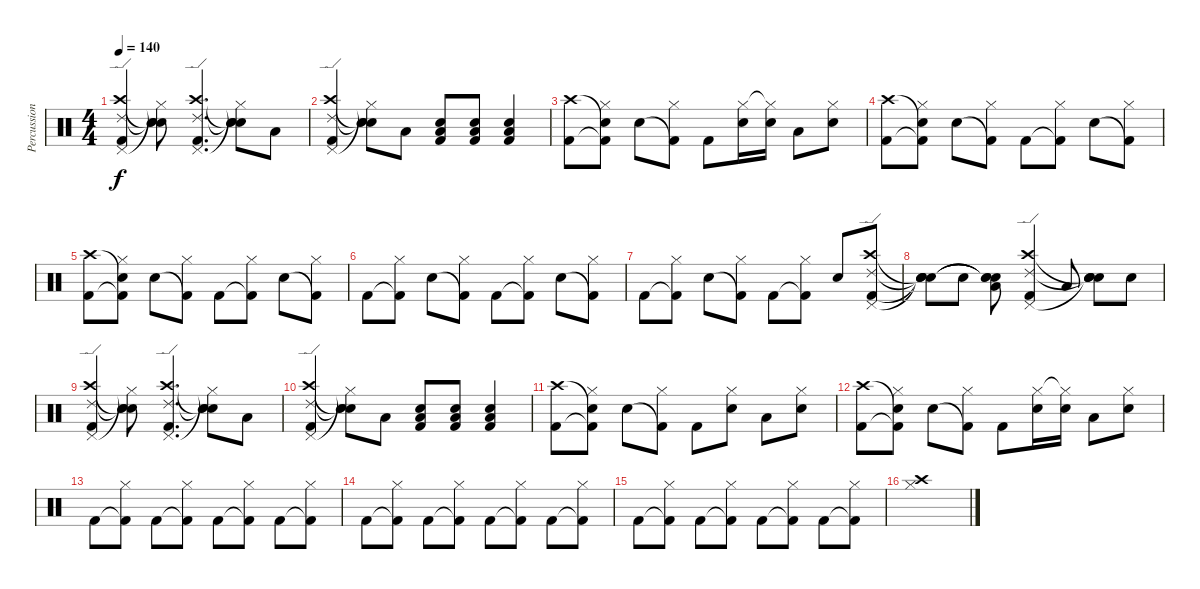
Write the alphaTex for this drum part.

\track ("Percussion" "Percussion") {instrument percussion}
\staff {score}
\articulation defaults
\ts (4 4)
\tempo 140
\clef neutral
\ks c
("Kick (hit) 2" "Crash high (hit)" "Ride (edge) 2" "Pedal Hi-Hat (hit)").4{dy f} ("Snare (hit) 2" "Snare (hit)"{t} "Snare (hit)"{t} "Hi-Hat (closed)"{t}).8 ("Kick (hit) 2" "Crash high (hit)" "Ride (edge) 2" "Pedal Hi-Hat (hit)").4{d} ("Snare (hit) 2" "Snare (hit)"{t} "Snare (hit)"{t} "Hi-Hat (closed)"{t}).8 "Low Tom (hit)".8 |
("Kick (hit) 2" "Crash high (hit)" "Ride (edge) 2" "Pedal Hi-Hat (hit)").4 ("Snare (hit) 2" "Snare (hit)"{t} "Snare (hit)"{t} "Hi-Hat (closed)"{t}).8 "Low Tom (hit)".8 ("Low Tom (hit)" "Snare (hit) 2" "Kick (hit) 2").8 ("Low Tom (hit)" "Snare (hit) 2" "Kick (hit) 2").8 ("Low Tom (hit)" "Snare (hit) 2" "Kick (hit) 2").4 |
("Kick (hit) 2" "Crash high (hit)").8 ("Kick (hit) 2"{t} "Snare (hit)"{t} "Hi-Hat (closed)").8 "Snare (hit) 2".8 ("Kick (hit) 2"{t} "Hi-Hat (closed)").8 "Kick (hit) 2".8 ("Snare (hit) 2" "Hi-Hat (closed)").16 ("Snare (hit) 2" "Hi-Hat (closed)"{t}).16 "Low Tom (hit)".8 ("Snare (hit) 2" "Hi-Hat (closed)").8 |
("Kick (hit) 2" "Crash high (hit)").8 ("Kick (hit) 2"{t} "Snare (hit)"{t} "Hi-Hat (closed)").8 "Snare (hit) 2".8 ("Kick (hit) 2"{t} "Hi-Hat (closed)").8 "Kick (hit) 2".8 ("Kick (hit) 2"{t} "Hi-Hat (closed)").8 "Snare (hit) 2".8 ("Kick (hit) 2"{t} "Hi-Hat (closed)").8 |
("Kick (hit) 2" "Crash high (hit)").8 ("Kick (hit) 2"{t} "Snare (hit)"{t} "Hi-Hat (closed)").8 "Snare (hit) 2".8 ("Kick (hit) 2"{t} "Hi-Hat (closed)").8 "Kick (hit) 2".8 ("Kick (hit) 2"{t} "Hi-Hat (closed)").8 "Snare (hit) 2".8 ("Kick (hit) 2"{t} "Hi-Hat (closed)").8 |
"Kick (hit) 2".8 ("Kick (hit) 2"{t} "Hi-Hat (closed)").8 "Snare (hit) 2".8 ("Kick (hit) 2"{t} "Hi-Hat (closed)").8 "Kick (hit) 2".8 ("Kick (hit) 2"{t} "Hi-Hat (closed)").8 "Snare (hit) 2".8 ("Kick (hit) 2"{t} "Hi-Hat (closed)").8 |
"Kick (hit) 2".8 ("Kick (hit) 2"{t} "Hi-Hat (closed)").8 "Snare (hit) 2".8 ("Kick (hit) 2"{t} "Hi-Hat (closed)").8 "Kick (hit) 2".8 ("Kick (hit) 2"{t} "Hi-Hat (closed)").8 "Snare (hit) 2".8 ("Kick (hit) 2" "Crash high (hit)" "Ride (edge) 2" "Pedal Hi-Hat (hit)").8 |
("Snare (hit) 2"{t} "Snare (hit)"{t} "Snare (hit)"{t} "Snare (hit)"{t}).8 "Snare (hit) 2".8 ("Low Tom (hit)" "Snare (hit)"{t} "Snare (hit)"{t} "Snare (hit)"{t}).8 ("Kick (hit) 2" "Crash high (hit)" "Ride (edge) 2" "Pedal Hi-Hat (hit)").4 "Low Tom (hit)".8 ("Snare (hit) 2" "Snare (hit)"{t} "Snare (hit)"{t} "Snare (hit)"{t}).8 "Snare (hit) 2".8 |
("Kick (hit) 2" "Crash high (hit)" "Ride (edge) 2" "Pedal Hi-Hat (hit)").4 ("Snare (hit) 2" "Snare (hit)"{t} "Snare (hit)"{t} "Hi-Hat (closed)"{t}).8 ("Kick (hit) 2" "Crash high (hit)" "Ride (edge) 2" "Pedal Hi-Hat (hit)").4{d} ("Snare (hit) 2" "Snare (hit)"{t} "Snare (hit)"{t} "Hi-Hat (closed)"{t}).8 "Low Tom (hit)".8 |
("Kick (hit) 2" "Crash high (hit)" "Ride (edge) 2" "Pedal Hi-Hat (hit)").4 ("Snare (hit) 2" "Snare (hit)"{t} "Snare (hit)"{t} "Hi-Hat (closed)"{t}).8 "Low Tom (hit)".8 ("Low Tom (hit)" "Snare (hit) 2" "Kick (hit) 2").8 ("Low Tom (hit)" "Snare (hit) 2" "Kick (hit) 2").8 ("Low Tom (hit)" "Snare (hit) 2" "Kick (hit) 2").4 |
("Kick (hit) 2" "Crash high (hit)").8 ("Kick (hit) 2"{t} "Snare (hit)"{t} "Hi-Hat (closed)").8 "Snare (hit) 2".8 ("Kick (hit) 2"{t} "Hi-Hat (closed)").8 "Kick (hit) 2".8 ("Snare (hit) 2" "Hi-Hat (closed)").8 "Low Tom (hit)".8 ("Snare (hit) 2" "Hi-Hat (closed)").8 |
("Kick (hit) 2" "Crash high (hit)").8 ("Kick (hit) 2"{t} "Snare (hit)"{t} "Hi-Hat (closed)").8 "Snare (hit) 2".8 ("Kick (hit) 2"{t} "Hi-Hat (closed)").8 "Kick (hit) 2".8 ("Snare (hit) 2" "Hi-Hat (closed)").16 ("Snare (hit) 2" "Hi-Hat (closed)"{t}).16 "Low Tom (hit)".8 ("Snare (hit) 2" "Hi-Hat (closed)").8 |
"Kick (hit) 2".8 ("Kick (hit) 2"{t} "Hi-Hat (closed)").8 "Kick (hit) 2".8 ("Kick (hit) 2"{t} "Hi-Hat (closed)").8 "Kick (hit) 2".8 ("Kick (hit) 2"{t} "Hi-Hat (closed)").8 "Kick (hit) 2".8 ("Kick (hit) 2"{t} "Hi-Hat (closed)").8 |
"Kick (hit) 2".8 ("Kick (hit) 2"{t} "Hi-Hat (closed)").8 "Kick (hit) 2".8 ("Kick (hit) 2"{t} "Hi-Hat (closed)").8 "Kick (hit) 2".8 ("Kick (hit) 2"{t} "Hi-Hat (closed)").8 "Kick (hit) 2".8 ("Kick (hit) 2"{t} "Hi-Hat (closed)").8 |
"Kick (hit) 2".8 ("Kick (hit) 2"{t} "Hi-Hat (closed)").8 "Kick (hit) 2".8 ("Kick (hit) 2"{t} "Hi-Hat (closed)").8 "Kick (hit) 2".8 ("Kick (hit) 2"{t} "Hi-Hat (closed)").8 "Kick (hit) 2".8 ("Kick (hit) 2"{t} "Hi-Hat (closed)").8 |
("Crash high (hit)" "Hi-Hat (closed)").1
